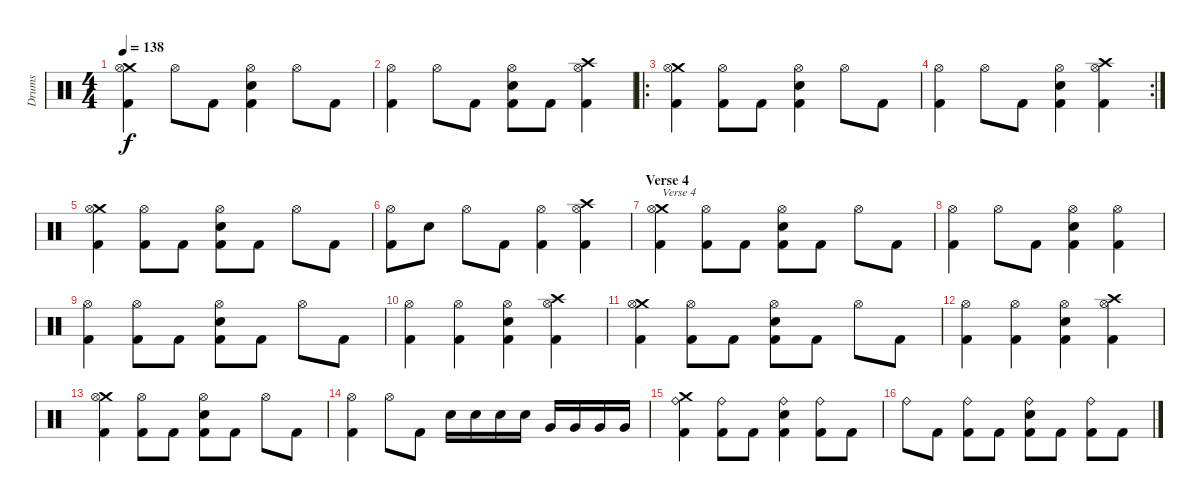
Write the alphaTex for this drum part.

\track ("Drums" "Drums") {instrument percussion}
\staff {score}
\articulation defaults
\ts (4 4)
\tempo 138
\clef neutral
\ks c
("Crash medium (hit)" "Hi-Hat (open)" "Kick (hit) 2").4{dy f} "Hi-Hat (open)".8 "Kick (hit) 2".8 ("Hi-Hat (open)" "Electric Snare (hit)" "Kick (hit) 2").4 "Hi-Hat (open)".8 "Kick (hit) 2".8 |
("Hi-Hat (open)" "Kick (hit) 2").4 "Hi-Hat (open)".8 "Kick (hit) 2".8 ("Hi-Hat (open)" "Electric Snare (hit)" "Kick (hit) 2").8 "Kick (hit) 2".8 ("Crash high (hit)" "Hi-Hat (open)" "Kick (hit) 2").4 |
\ro
("Crash medium (hit)" "Hi-Hat (open)" "Kick (hit) 2").4 ("Hi-Hat (open)" "Kick (hit) 2").8 "Kick (hit) 2".8 ("Hi-Hat (open)" "Electric Snare (hit)" "Kick (hit) 2").4 "Hi-Hat (open)".8 "Kick (hit) 2".8 |
\rc 2
("Hi-Hat (open)" "Kick (hit) 2").4 "Hi-Hat (open)".8 "Kick (hit) 2".8 ("Hi-Hat (open)" "Electric Snare (hit)" "Kick (hit) 2").4 ("Crash high (hit)" "Hi-Hat (open)" "Kick (hit) 2").4 |
("Crash medium (hit)" "Hi-Hat (open)" "Kick (hit) 2").4 ("Hi-Hat (open)" "Kick (hit) 2").8 "Kick (hit) 2".8 ("Hi-Hat (open)" "Electric Snare (hit)" "Kick (hit) 2").8 "Kick (hit) 2".8 "Hi-Hat (open)".8 "Kick (hit) 2".8 |
("Hi-Hat (open)" "Kick (hit) 2").8 "Electric Snare (hit)".8 "Hi-Hat (open)".8 "Kick (hit) 2".8 ("Hi-Hat (open)" "Kick (hit) 2").4 ("Crash high (hit)" "Hi-Hat (open)" "Kick (hit) 2").4 |
\section ("" "Verse 4")
("Crash medium (hit)" "Hi-Hat (open)" "Kick (hit) 2").4{txt "Verse 4"} ("Hi-Hat (open)" "Kick (hit) 2").8 "Kick (hit) 2".8 ("Hi-Hat (open)" "Electric Snare (hit)" "Kick (hit) 2").8 "Kick (hit) 2".8 "Hi-Hat (open)".8 "Kick (hit) 2".8 |
("Hi-Hat (open)" "Kick (hit) 2").4 "Hi-Hat (open)".8 "Kick (hit) 2".8 ("Hi-Hat (open)" "Electric Snare (hit)" "Kick (hit) 2").4 ("Hi-Hat (open)" "Kick (hit) 2").4 |
("Hi-Hat (open)" "Kick (hit) 2").4 ("Hi-Hat (open)" "Kick (hit) 2").8 "Kick (hit) 2".8 ("Hi-Hat (open)" "Electric Snare (hit)" "Kick (hit) 2").8 "Kick (hit) 2".8 "Hi-Hat (open)".8 "Kick (hit) 2".8 |
("Hi-Hat (open)" "Kick (hit) 2").4 ("Hi-Hat (open)" "Kick (hit) 2").4 ("Hi-Hat (open)" "Electric Snare (hit)" "Kick (hit) 2").4 ("Crash high (hit)" "Hi-Hat (open)" "Kick (hit) 2").4 |
("Crash medium (hit)" "Hi-Hat (open)" "Kick (hit) 2").4 ("Hi-Hat (open)" "Kick (hit) 2").8 "Kick (hit) 2".8 ("Hi-Hat (open)" "Electric Snare (hit)" "Kick (hit) 2").8 "Kick (hit) 2".8 "Hi-Hat (open)".8 "Kick (hit) 2".8 |
("Hi-Hat (open)" "Kick (hit) 2").4 ("Hi-Hat (open)" "Kick (hit) 2").4 ("Hi-Hat (open)" "Electric Snare (hit)" "Kick (hit) 2").4 ("Crash high (hit)" "Hi-Hat (open)" "Kick (hit) 2").4 |
("Crash medium (hit)" "Hi-Hat (open)" "Kick (hit) 2").4 ("Hi-Hat (open)" "Kick (hit) 2").8 "Kick (hit) 2".8 ("Hi-Hat (open)" "Electric Snare (hit)" "Kick (hit) 2").8 "Kick (hit) 2".8 "Hi-Hat (open)".8 "Kick (hit) 2".8 |
("Hi-Hat (open)" "Kick (hit) 2").4 "Hi-Hat (open)".8 "Kick (hit) 2".8 "Electric Snare (hit)".16 "Electric Snare (hit)".16 "Electric Snare (hit)".16 "Electric Snare (hit)".16 "Very Low Tom (hit)".16 "Very Low Tom (hit)".16 "Very Low Tom (hit)".16 "Very Low Tom (hit)".16 |
("Crash medium (hit)" "Ride (bell)" "Kick (hit) 2").4 ("Ride (bell)" "Kick (hit) 2").8 "Kick (hit) 2".8 ("Ride (bell)" "Electric Snare (hit)" "Kick (hit) 2").4 ("Ride (bell)" "Kick (hit) 2").8 "Kick (hit) 2".8 |
"Ride (bell)".8 "Kick (hit) 2".8 ("Ride (bell)" "Kick (hit) 2").8 "Kick (hit) 2".8 ("Ride (bell)" "Electric Snare (hit)" "Kick (hit) 2").8 "Kick (hit) 2".8 ("Ride (bell)" "Kick (hit) 2").8 "Kick (hit) 2".8
